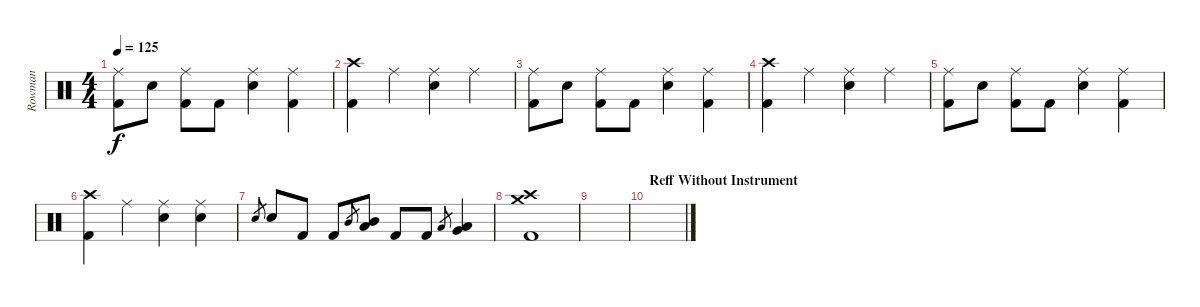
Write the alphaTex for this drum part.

\track ("Rowman" "Rowman") {instrument percussion}
\staff {score}
\articulation defaults
\ts (4 4)
\tempo 125
\clef neutral
\ks c
("Kick (hit) 2" "Ride (middle)").8{dy f} "Electric Snare (hit)".8 ("Kick (hit) 2" "Ride (middle)").8 "Kick (hit) 2".8 ("Electric Snare (hit)" "Ride (middle)").4 ("Kick (hit) 2" "Ride (middle)").4 |
("Kick (hit) 2" "Crash high (hit)").4 "Ride (middle)".4 ("Electric Snare (hit)" "Ride (middle)").4 "Ride (middle)".4 |
("Kick (hit) 2" "Ride (middle)").8 "Electric Snare (hit)".8 ("Kick (hit) 2" "Ride (middle)").8 "Kick (hit) 2".8 ("Electric Snare (hit)" "Ride (middle)").4 ("Kick (hit) 2" "Ride (middle)").4 |
("Kick (hit) 2" "Crash high (hit)").4 "Ride (middle)".4 ("Electric Snare (hit)" "Ride (middle)").4 "Ride (middle)".4 |
("Kick (hit) 2" "Ride (middle)").8 "Electric Snare (hit)".8 ("Kick (hit) 2" "Ride (middle)").8 "Kick (hit) 2".8 ("Electric Snare (hit)" "Ride (middle)").4 ("Kick (hit) 2" "Ride (middle)").4 |
("Kick (hit) 2" "Crash high (hit)").4 "Ride (middle)".4 ("Electric Snare (hit)" "Ride (middle)").4 ("Electric Snare (hit)" "Ride (middle)").4 |
"Electric Snare (hit)".8{gr} "Electric Snare (hit)".8 "Kick (hit) 2".8 "Kick (hit) 2".8 "Mid Tom (hit)".8{gr} ("Low Tom (hit)" "Mid Tom (hit)").8 "Kick (hit) 2".8 "Kick (hit) 2".8 "Low Tom (hit)".8{gr} ("Very Low Tom (hit)" "Low Tom (hit)").4 |
("Kick (hit) 2" "Crash high (hit)" "Crash medium (hit)").1 |
|
\section ("" "Reff Without Instrument")
